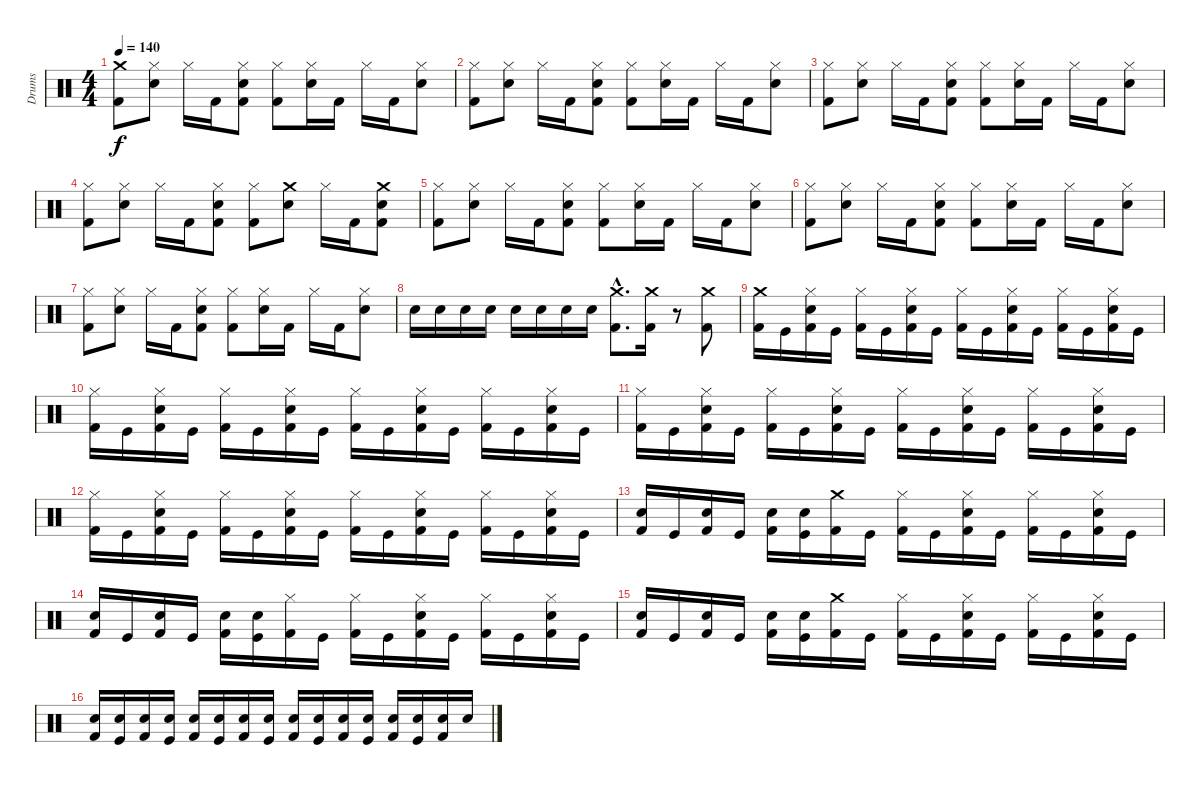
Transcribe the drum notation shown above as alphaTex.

\track ("Drums" "Drums") {instrument percussion}
\staff {score}
\articulation defaults
\ts (4 4)
\tempo 140
\clef neutral
\ks c
("Kick (hit) 2" "Crash medium (hit)").8{dy f} ("Snare (hit) 2" "Hi-Hat (closed)").8 "Hi-Hat (closed)".16 "Kick (hit) 2".16 ("Kick (hit) 2" "Snare (hit) 2" "Hi-Hat (closed)").8 ("Kick (hit) 2" "Hi-Hat (closed)").8 ("Snare (hit) 2" "Hi-Hat (closed)").16 "Kick (hit) 2".16 "Hi-Hat (closed)".16 "Kick (hit) 2".16 ("Snare (hit) 2" "Hi-Hat (closed)").8 |
("Hi-Hat (closed)" "Kick (hit) 2").8 ("Snare (hit) 2" "Hi-Hat (closed)").8 "Hi-Hat (closed)".16 "Kick (hit) 2".16 ("Kick (hit) 2" "Snare (hit) 2" "Hi-Hat (closed)").8 ("Kick (hit) 2" "Hi-Hat (closed)").8 ("Snare (hit) 2" "Hi-Hat (closed)").16 "Kick (hit) 2".16 "Hi-Hat (closed)".16 "Kick (hit) 2".16 ("Snare (hit) 2" "Hi-Hat (closed)").8 |
("Hi-Hat (closed)" "Kick (hit) 2").8 ("Snare (hit) 2" "Hi-Hat (closed)").8 "Hi-Hat (closed)".16 "Kick (hit) 2".16 ("Snare (hit) 2" "Hi-Hat (closed)" "Kick (hit) 2").8 ("Hi-Hat (closed)" "Kick (hit) 2").8 ("Snare (hit) 2" "Hi-Hat (closed)").16 "Kick (hit) 2".16 "Hi-Hat (closed)".16 "Kick (hit) 2".16 ("Snare (hit) 2" "Hi-Hat (closed)").8 |
("Hi-Hat (closed)" "Kick (hit) 2").8 ("Snare (hit) 2" "Hi-Hat (closed)").8 "Hi-Hat (closed)".16 "Kick (hit) 2".16 ("Kick (hit) 2" "Snare (hit) 2" "Hi-Hat (closed)").8 ("Hi-Hat (closed)" "Kick (hit) 2").8 ("Crash medium (hit)" "Snare (hit) 2").8 "Hi-Hat (closed)".16 "Kick (hit) 2".16 ("Kick (hit) 2" "Crash medium (hit)" "Snare (hit) 2").8 |
("Hi-Hat (closed)" "Kick (hit) 2").8 ("Snare (hit) 2" "Hi-Hat (closed)").8 "Hi-Hat (closed)".16 "Kick (hit) 2".16 ("Kick (hit) 2" "Snare (hit) 2" "Hi-Hat (closed)").8 ("Kick (hit) 2" "Hi-Hat (closed)").8 ("Snare (hit) 2" "Hi-Hat (closed)").16 "Kick (hit) 2".16 "Hi-Hat (closed)".16 "Kick (hit) 2".16 ("Snare (hit) 2" "Hi-Hat (closed)").8 |
("Hi-Hat (closed)" "Kick (hit) 2").8 ("Snare (hit) 2" "Hi-Hat (closed)").8 "Hi-Hat (closed)".16 "Kick (hit) 2".16 ("Kick (hit) 2" "Snare (hit) 2" "Hi-Hat (closed)").8 ("Kick (hit) 2" "Hi-Hat (closed)").8 ("Snare (hit) 2" "Hi-Hat (closed)").16 "Kick (hit) 2".16 "Hi-Hat (closed)".16 "Kick (hit) 2".16 ("Snare (hit) 2" "Hi-Hat (closed)").8 |
("Hi-Hat (closed)" "Kick (hit) 2").8 ("Snare (hit) 2" "Hi-Hat (closed)").8 "Hi-Hat (closed)".16 "Kick (hit) 2".16 ("Kick (hit) 2" "Snare (hit) 2" "Hi-Hat (closed)").8 ("Kick (hit) 2" "Hi-Hat (closed)").8 ("Snare (hit) 2" "Hi-Hat (closed)").16 "Kick (hit) 2".16 "Hi-Hat (closed)".16 "Kick (hit) 2".16 ("Snare (hit) 2" "Hi-Hat (closed)").8 |
"Snare (hit) 2".16 "Snare (hit) 2".16 "Snare (hit) 2".16 "Snare (hit) 2".16 "Snare (hit) 2".16 "Snare (hit) 2".16 "Snare (hit) 2".16 "Snare (hit) 2".16 ("Crash medium (hit)"{hac} "Kick (hit) 2"{hac}).8{d} ("Crash medium (hit)" "Kick (hit) 2").16 r.8 ("Crash medium (hit)" "Kick (hit) 2").8 |
("Crash medium (hit)" "Kick (hit) 2").16 "Kick (hit)".16 ("Snare (hit) 2" "Hi-Hat (closed)" "Kick (hit) 2").16 "Kick (hit)".16 ("Hi-Hat (closed)" "Kick (hit) 2").16 "Kick (hit)".16 ("Snare (hit) 2" "Hi-Hat (closed)" "Kick (hit) 2").16 "Kick (hit)".16 ("Hi-Hat (closed)" "Kick (hit) 2").16 "Kick (hit)".16 ("Snare (hit) 2" "Hi-Hat (closed)" "Kick (hit) 2").16 "Kick (hit)".16 ("Hi-Hat (closed)" "Kick (hit) 2").16 "Kick (hit)".16 ("Snare (hit) 2" "Hi-Hat (closed)" "Kick (hit) 2").16 "Kick (hit)".16 |
("Hi-Hat (closed)" "Kick (hit) 2").16 "Kick (hit)".16 ("Snare (hit) 2" "Hi-Hat (closed)" "Kick (hit) 2").16 "Kick (hit)".16 ("Hi-Hat (closed)" "Kick (hit) 2").16 "Kick (hit)".16 ("Snare (hit) 2" "Hi-Hat (closed)" "Kick (hit) 2").16 "Kick (hit)".16 ("Hi-Hat (closed)" "Kick (hit) 2").16 "Kick (hit)".16 ("Snare (hit) 2" "Hi-Hat (closed)" "Kick (hit) 2").16 "Kick (hit)".16 ("Hi-Hat (closed)" "Kick (hit) 2").16 "Kick (hit)".16 ("Snare (hit) 2" "Hi-Hat (closed)" "Kick (hit) 2").16 "Kick (hit)".16 |
("Hi-Hat (closed)" "Kick (hit) 2").16 "Kick (hit)".16 ("Snare (hit) 2" "Hi-Hat (closed)" "Kick (hit) 2").16 "Kick (hit)".16 ("Hi-Hat (closed)" "Kick (hit) 2").16 "Kick (hit)".16 ("Snare (hit) 2" "Hi-Hat (closed)" "Kick (hit) 2").16 "Kick (hit)".16 ("Hi-Hat (closed)" "Kick (hit) 2").16 "Kick (hit)".16 ("Snare (hit) 2" "Hi-Hat (closed)" "Kick (hit) 2").16 "Kick (hit)".16 ("Hi-Hat (closed)" "Kick (hit) 2").16 "Kick (hit)".16 ("Snare (hit) 2" "Hi-Hat (closed)" "Kick (hit) 2").16 "Kick (hit)".16 |
("Hi-Hat (closed)" "Kick (hit) 2").16 "Kick (hit)".16 ("Snare (hit) 2" "Hi-Hat (closed)" "Kick (hit) 2").16 "Kick (hit)".16 ("Hi-Hat (closed)" "Kick (hit) 2").16 "Kick (hit)".16 ("Snare (hit) 2" "Hi-Hat (closed)" "Kick (hit) 2").16 "Kick (hit)".16 ("Hi-Hat (closed)" "Kick (hit) 2").16 "Kick (hit)".16 ("Snare (hit) 2" "Hi-Hat (closed)" "Kick (hit) 2").16 "Kick (hit)".16 ("Hi-Hat (closed)" "Kick (hit) 2").16 "Kick (hit)".16 ("Snare (hit) 2" "Hi-Hat (closed)" "Kick (hit) 2").16 "Kick (hit)".16 |
("Snare (hit) 2" "Kick (hit) 2").16 "Kick (hit)".16 ("Snare (hit) 2" "Kick (hit) 2").16 "Kick (hit)".16 ("Snare (hit) 2" "Kick (hit) 2").16 ("Snare (hit) 2" "Kick (hit)").16 ("Crash medium (hit)" "Kick (hit) 2").16 "Kick (hit)".16 ("Hi-Hat (closed)" "Kick (hit) 2").16 "Kick (hit)".16 ("Snare (hit) 2" "Hi-Hat (closed)" "Kick (hit) 2").16 "Kick (hit)".16 ("Hi-Hat (closed)" "Kick (hit) 2").16 "Kick (hit)".16 ("Snare (hit) 2" "Hi-Hat (closed)" "Kick (hit) 2").16 "Kick (hit)".16 |
("Snare (hit) 2" "Kick (hit) 2").16 "Kick (hit)".16 ("Snare (hit) 2" "Kick (hit) 2").16 "Kick (hit)".16 ("Snare (hit) 2" "Kick (hit) 2").16 ("Snare (hit) 2" "Kick (hit)").16 ("Hi-Hat (closed)" "Kick (hit) 2").16 "Kick (hit)".16 ("Hi-Hat (closed)" "Kick (hit) 2").16 "Kick (hit)".16 ("Snare (hit) 2" "Hi-Hat (closed)" "Kick (hit) 2").16 "Kick (hit)".16 ("Hi-Hat (closed)" "Kick (hit) 2").16 "Kick (hit)".16 ("Snare (hit) 2" "Hi-Hat (closed)" "Kick (hit) 2").16 "Kick (hit)".16 |
("Snare (hit) 2" "Kick (hit) 2").16 "Kick (hit)".16 ("Snare (hit) 2" "Kick (hit) 2").16 "Kick (hit)".16 ("Snare (hit) 2" "Kick (hit) 2").16 ("Snare (hit) 2" "Kick (hit)").16 ("Crash medium (hit)" "Kick (hit) 2").16 "Kick (hit)".16 ("Hi-Hat (closed)" "Kick (hit) 2").16 "Kick (hit)".16 ("Snare (hit) 2" "Hi-Hat (closed)" "Kick (hit) 2").16 "Kick (hit)".16 ("Hi-Hat (closed)" "Kick (hit) 2").16 "Kick (hit)".16 ("Snare (hit) 2" "Hi-Hat (closed)" "Kick (hit) 2").16 "Kick (hit)".16 |
("Snare (hit) 2" "Kick (hit) 2").16 ("Snare (hit) 2" "Kick (hit)").16 ("Snare (hit) 2" "Kick (hit) 2").16 ("Snare (hit) 2" "Kick (hit)").16 ("Snare (hit) 2" "Kick (hit) 2").16 ("Snare (hit) 2" "Kick (hit)").16 ("Snare (hit) 2" "Kick (hit) 2").16 ("Snare (hit) 2" "Kick (hit)").16 ("Snare (hit) 2" "Kick (hit) 2").16 ("Snare (hit) 2" "Kick (hit)").16 ("Snare (hit) 2" "Kick (hit) 2").16 ("Snare (hit) 2" "Kick (hit)").16 ("Snare (hit) 2" "Kick (hit) 2").16 ("Snare (hit) 2" "Kick (hit)").16 ("Snare (hit) 2" "Kick (hit) 2").16 "Snare (hit) 2".16
